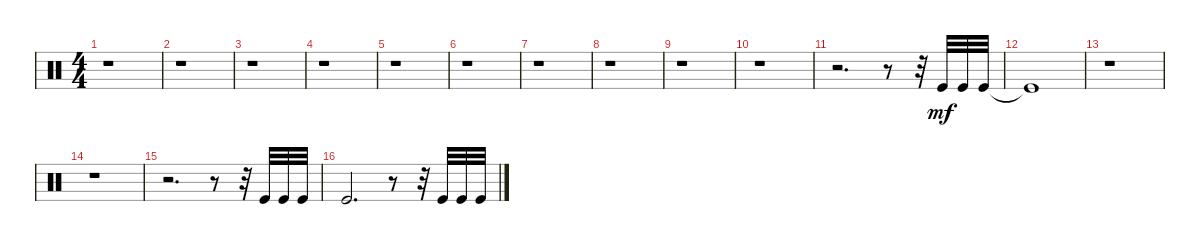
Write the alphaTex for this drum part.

\defaultSystemsLayout 4
\bracketExtendMode groupsimilarinstruments
\singleTrackTrackNamePolicy hidden
\multiTrackTrackNamePolicy hidden
\firstSystemTrackNameOrientation horizontal
\otherSystemsTrackNameOrientation horizontal
\track ("Castanets" "Cast.") {instrument percussion}
\staff {score}
\articulation defaults
\ts (4 4)
\tempo (85 hide)
\clef neutral
\scale
1.02648
\ks c
r.1{dy mf} |
\scale
0.973518 r.1 |
\scale
1.02648 r.1 |
\scale
0.973518 r.1 |
\scale
1.02648 r.1 |
\scale
0.973518 r.1 |
\scale
1.02648 r.1 |
\tempo (92 hide)
\scale
0.973518 r.1 |
\scale
1.02648 r.1 |
\scale
0.973518 r.1 |
\scale
1.02648 r.2{d} r.8 r.32 "Kick (hit)".32 "Kick (hit)".32 "Kick (hit)".32 |
\scale
0.973518 "Kick (hit)"{t}.1 |
\scale
1.02648 r.1 |
\scale
0.973518 r.1 |
\scale
1.02648 r.2{d} r.8 r.32 "Kick (hit)".32 "Kick (hit)".32 "Kick (hit)".32 |
\scale
0.973518 "Kick (hit)".2{d} r.8 r.32 "Kick (hit)".32 "Kick (hit)".32 "Kick (hit)".32
